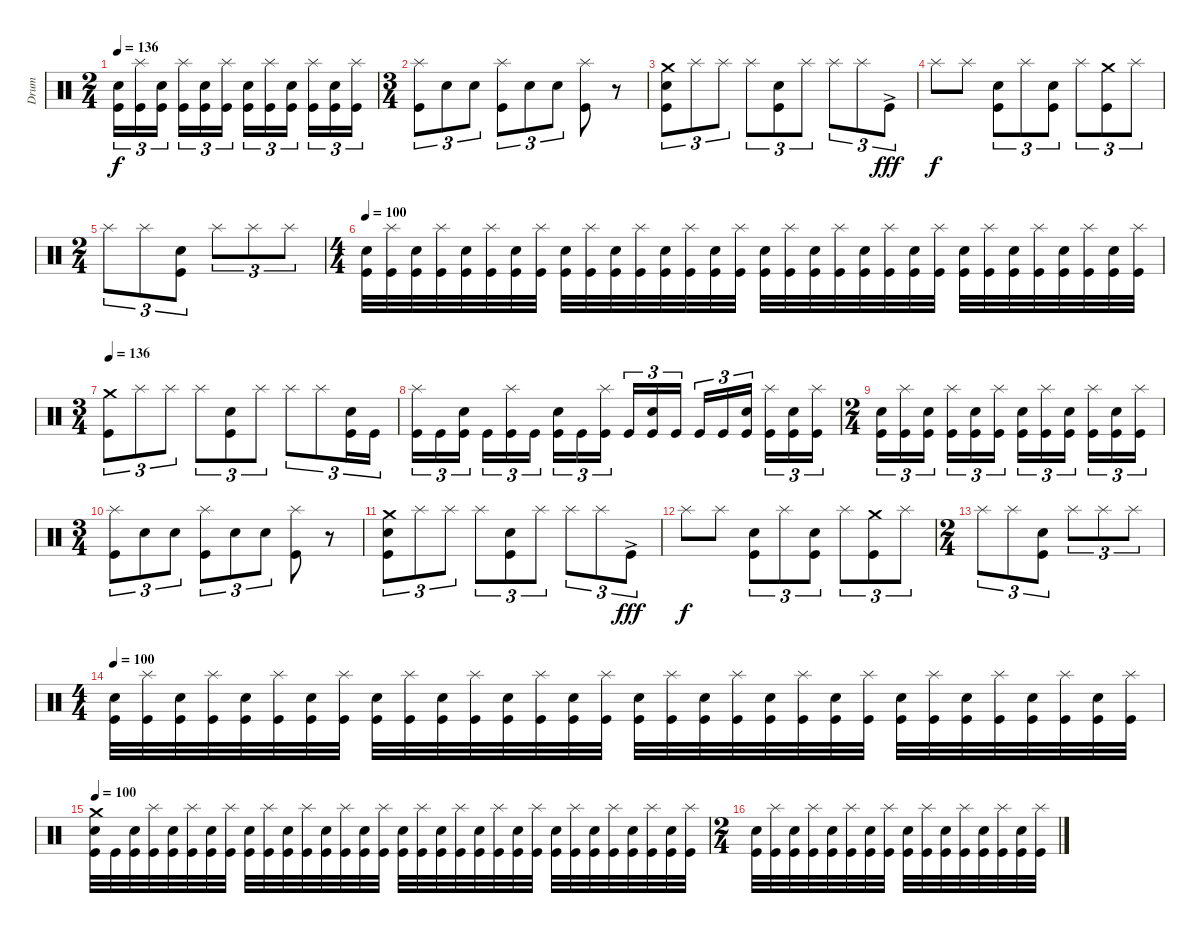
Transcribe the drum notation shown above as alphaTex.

\track ("Drum" "Drum") {instrument percussion}
\staff
\articulation defaults
\ts (2 4)
\tempo 136
\clef neutral
\ks c
("Electric Snare (hit)" "Kick (hit)").16{tu (3 2) dy f} ("Splash (hit)" "Kick (hit)").16{tu (3 2)} ("Electric Snare (hit)" "Kick (hit)").16{tu (3 2) beam splitsecondary} ("Splash (hit)" "Kick (hit)").16{tu (3 2)} ("Electric Snare (hit)" "Kick (hit)").16{tu (3 2)} ("Splash (hit)" "Kick (hit)").16{tu (3 2)} ("Electric Snare (hit)" "Kick (hit)").16{tu (3 2)} ("Splash (hit)" "Kick (hit)").16{tu (3 2)} ("Electric Snare (hit)" "Kick (hit)").16{tu (3 2) beam splitsecondary} ("Splash (hit)" "Kick (hit)").16{tu (3 2)} ("Electric Snare (hit)" "Kick (hit)").16{tu (3 2)} ("Splash (hit)" "Kick (hit)").16{tu (3 2)} |
\ts (3 4)
("Splash (hit)" "Kick (hit)").8{tu (3 2)} "Electric Snare (hit)".8{tu (3 2)} "Electric Snare (hit)".8{tu (3 2)} ("Splash (hit)" "Kick (hit)").8{tu (3 2)} "Electric Snare (hit)".8{tu (3 2)} "Electric Snare (hit)".8{tu (3 2)} ("Splash (hit)" "Kick (hit)").8 r.8 |
("Crash medium (hit)" "Electric Snare (hit)" "Kick (hit)").8{tu (3 2)} "Splash (hit)".8{tu (3 2)} "Splash (hit)".8{tu (3 2)} "Splash (hit)".8{tu (3 2)} ("Electric Snare (hit)" "Kick (hit)").8{tu (3 2)} "Splash (hit)".8{tu (3 2)} "Splash (hit)".8{tu (3 2)} "Splash (hit)".8{tu (3 2)} "Kick (hit)"{ac}.8{tu (3 2) dy fff} |
"Splash (hit)".8{dy f} "Splash (hit)".8 ("Electric Snare (hit)" "Kick (hit)").8{tu (3 2)} "Splash (hit)".8{tu (3 2)} ("Electric Snare (hit)" "Kick (hit)").8{tu (3 2)} "Splash (hit)".8{tu (3 2)} ("Crash medium (hit)" "Kick (hit)").8{tu (3 2)} "Splash (hit)".8{tu (3 2)} |
\ts (2 4)
"Splash (hit)".8{tu (3 2)} "Splash (hit)".8{tu (3 2)} ("Electric Snare (hit)" "Kick (hit)").8{tu (3 2)} "Splash (hit)".8{tu (3 2)} "Splash (hit)".8{tu (3 2)} "Splash (hit)".8{tu (3 2)} |
\ts (4 4)
\tempo 100
("Electric Snare (hit)" "Kick (hit)").32 ("Splash (hit)" "Kick (hit)").32 ("Electric Snare (hit)" "Kick (hit)").32 ("Splash (hit)" "Kick (hit)").32 ("Electric Snare (hit)" "Kick (hit)").32 ("Splash (hit)" "Kick (hit)").32 ("Electric Snare (hit)" "Kick (hit)").32 ("Splash (hit)" "Kick (hit)").32 ("Electric Snare (hit)" "Kick (hit)").32 ("Splash (hit)" "Kick (hit)").32 ("Electric Snare (hit)" "Kick (hit)").32 ("Splash (hit)" "Kick (hit)").32 ("Electric Snare (hit)" "Kick (hit)").32 ("Splash (hit)" "Kick (hit)").32 ("Electric Snare (hit)" "Kick (hit)").32 ("Splash (hit)" "Kick (hit)").32 ("Electric Snare (hit)" "Kick (hit)").32 ("Splash (hit)" "Kick (hit)").32 ("Electric Snare (hit)" "Kick (hit)").32 ("Splash (hit)" "Kick (hit)").32 ("Electric Snare (hit)" "Kick (hit)").32 ("Splash (hit)" "Kick (hit)").32 ("Electric Snare (hit)" "Kick (hit)").32 ("Splash (hit)" "Kick (hit)").32 ("Electric Snare (hit)" "Kick (hit)").32 ("Splash (hit)" "Kick (hit)").32 ("Electric Snare (hit)" "Kick (hit)").32 ("Splash (hit)" "Kick (hit)").32 ("Electric Snare (hit)" "Kick (hit)").32 ("Splash (hit)" "Kick (hit)").32 ("Electric Snare (hit)" "Kick (hit)").32 ("Splash (hit)" "Kick (hit)").32 |
\ts (3 4)
\tempo 136
("Crash medium (hit)" "Kick (hit)").8{tu (3 2)} "Splash (hit)".8{tu (3 2)} "Splash (hit)".8{tu (3 2)} "Splash (hit)".8{tu (3 2)} ("Electric Snare (hit)" "Kick (hit)").8{tu (3 2)} "Splash (hit)".8{tu (3 2)} "Splash (hit)".8{tu (3 2)} "Splash (hit)".8{tu (3 2)} ("Electric Snare (hit)" "Kick (hit)").16{tu (3 2)} "Kick (hit)".16{tu (3 2)} |
("Splash (hit)" "Kick (hit)").16{tu (3 2)} "Kick (hit)".16{tu (3 2)} ("Electric Snare (hit)" "Kick (hit)").16{tu (3 2) beam splitsecondary} "Kick (hit)".16{tu (3 2)} ("Splash (hit)" "Kick (hit)").16{tu (3 2)} "Kick (hit)".16{tu (3 2)} ("Electric Snare (hit)" "Kick (hit)").16{tu (3 2)} "Kick (hit)".16{tu (3 2)} ("Splash (hit)" "Kick (hit)").16{tu (3 2) beam splitsecondary} "Kick (hit)".16{tu (3 2)} ("Electric Snare (hit)" "Kick (hit)").16{tu (3 2)} "Kick (hit)".16{tu (3 2)} "Kick (hit)".16{tu (3 2)} "Kick (hit)".16{tu (3 2)} ("Electric Snare (hit)" "Kick (hit)").16{tu (3 2) beam splitsecondary} ("Splash (hit)" "Kick (hit)").16{tu (3 2)} ("Electric Snare (hit)" "Kick (hit)").16{tu (3 2)} ("Splash (hit)" "Kick (hit)").16{tu (3 2)} |
\ts (2 4)
("Electric Snare (hit)" "Kick (hit)").16{tu (3 2)} ("Splash (hit)" "Kick (hit)").16{tu (3 2)} ("Electric Snare (hit)" "Kick (hit)").16{tu (3 2) beam splitsecondary} ("Splash (hit)" "Kick (hit)").16{tu (3 2)} ("Electric Snare (hit)" "Kick (hit)").16{tu (3 2)} ("Splash (hit)" "Kick (hit)").16{tu (3 2)} ("Electric Snare (hit)" "Kick (hit)").16{tu (3 2)} ("Splash (hit)" "Kick (hit)").16{tu (3 2)} ("Electric Snare (hit)" "Kick (hit)").16{tu (3 2) beam splitsecondary} ("Splash (hit)" "Kick (hit)").16{tu (3 2)} ("Electric Snare (hit)" "Kick (hit)").16{tu (3 2)} ("Splash (hit)" "Kick (hit)").16{tu (3 2)} |
\ts (3 4)
("Splash (hit)" "Kick (hit)").8{tu (3 2)} "Electric Snare (hit)".8{tu (3 2)} "Electric Snare (hit)".8{tu (3 2)} ("Splash (hit)" "Kick (hit)").8{tu (3 2)} "Electric Snare (hit)".8{tu (3 2)} "Electric Snare (hit)".8{tu (3 2)} ("Splash (hit)" "Kick (hit)").8 r.8 |
("Crash medium (hit)" "Electric Snare (hit)" "Kick (hit)").8{tu (3 2)} "Splash (hit)".8{tu (3 2)} "Splash (hit)".8{tu (3 2)} "Splash (hit)".8{tu (3 2)} ("Electric Snare (hit)" "Kick (hit)").8{tu (3 2)} "Splash (hit)".8{tu (3 2)} "Splash (hit)".8{tu (3 2)} "Splash (hit)".8{tu (3 2)} "Kick (hit)"{ac}.8{tu (3 2) dy fff} |
"Splash (hit)".8{dy f} "Splash (hit)".8 ("Electric Snare (hit)" "Kick (hit)").8{tu (3 2)} "Splash (hit)".8{tu (3 2)} ("Electric Snare (hit)" "Kick (hit)").8{tu (3 2)} "Splash (hit)".8{tu (3 2)} ("Crash medium (hit)" "Kick (hit)").8{tu (3 2)} "Splash (hit)".8{tu (3 2)} |
\ts (2 4)
"Splash (hit)".8{tu (3 2)} "Splash (hit)".8{tu (3 2)} ("Electric Snare (hit)" "Kick (hit)").8{tu (3 2)} "Splash (hit)".8{tu (3 2)} "Splash (hit)".8{tu (3 2)} "Splash (hit)".8{tu (3 2)} |
\ts (4 4)
\tempo 100
("Electric Snare (hit)" "Kick (hit)").32 ("Splash (hit)" "Kick (hit)").32 ("Electric Snare (hit)" "Kick (hit)").32 ("Splash (hit)" "Kick (hit)").32 ("Electric Snare (hit)" "Kick (hit)").32 ("Splash (hit)" "Kick (hit)").32 ("Electric Snare (hit)" "Kick (hit)").32 ("Splash (hit)" "Kick (hit)").32 ("Electric Snare (hit)" "Kick (hit)").32 ("Splash (hit)" "Kick (hit)").32 ("Electric Snare (hit)" "Kick (hit)").32 ("Splash (hit)" "Kick (hit)").32 ("Electric Snare (hit)" "Kick (hit)").32 ("Splash (hit)" "Kick (hit)").32 ("Electric Snare (hit)" "Kick (hit)").32 ("Splash (hit)" "Kick (hit)").32 ("Electric Snare (hit)" "Kick (hit)").32 ("Splash (hit)" "Kick (hit)").32 ("Electric Snare (hit)" "Kick (hit)").32 ("Splash (hit)" "Kick (hit)").32 ("Electric Snare (hit)" "Kick (hit)").32 ("Splash (hit)" "Kick (hit)").32 ("Electric Snare (hit)" "Kick (hit)").32 ("Splash (hit)" "Kick (hit)").32 ("Electric Snare (hit)" "Kick (hit)").32 ("Splash (hit)" "Kick (hit)").32 ("Electric Snare (hit)" "Kick (hit)").32 ("Splash (hit)" "Kick (hit)").32 ("Electric Snare (hit)" "Kick (hit)").32 ("Splash (hit)" "Kick (hit)").32 ("Electric Snare (hit)" "Kick (hit)").32 ("Splash (hit)" "Kick (hit)").32 |
\tempo 100
("Crash medium (hit)" "Electric Snare (hit)" "Kick (hit)").32 "Kick (hit)".32 ("Electric Snare (hit)" "Kick (hit)").32 ("Splash (hit)" "Kick (hit)").32 ("Electric Snare (hit)" "Kick (hit)").32 ("Splash (hit)" "Kick (hit)").32 ("Electric Snare (hit)" "Kick (hit)").32 ("Splash (hit)" "Kick (hit)").32 ("Electric Snare (hit)" "Kick (hit)").32 ("Splash (hit)" "Kick (hit)").32 ("Electric Snare (hit)" "Kick (hit)").32 ("Splash (hit)" "Kick (hit)").32 ("Electric Snare (hit)" "Kick (hit)").32 ("Splash (hit)" "Kick (hit)").32 ("Electric Snare (hit)" "Kick (hit)").32 ("Splash (hit)" "Kick (hit)").32 ("Electric Snare (hit)" "Kick (hit)").32 ("Splash (hit)" "Kick (hit)").32 ("Electric Snare (hit)" "Kick (hit)").32 ("Splash (hit)" "Kick (hit)").32 ("Electric Snare (hit)" "Kick (hit)").32 ("Splash (hit)" "Kick (hit)").32 ("Electric Snare (hit)" "Kick (hit)").32 ("Splash (hit)" "Kick (hit)").32 ("Electric Snare (hit)" "Kick (hit)").32 ("Splash (hit)" "Kick (hit)").32 ("Electric Snare (hit)" "Kick (hit)").32 ("Splash (hit)" "Kick (hit)").32 ("Electric Snare (hit)" "Kick (hit)").32 ("Splash (hit)" "Kick (hit)").32 ("Electric Snare (hit)" "Kick (hit)").32 ("Splash (hit)" "Kick (hit)").32 |
\ts (2 4)
("Electric Snare (hit)" "Kick (hit)").32 ("Splash (hit)" "Kick (hit)").32 ("Electric Snare (hit)" "Kick (hit)").32 ("Splash (hit)" "Kick (hit)").32 ("Electric Snare (hit)" "Kick (hit)").32 ("Splash (hit)" "Kick (hit)").32 ("Electric Snare (hit)" "Kick (hit)").32 ("Splash (hit)" "Kick (hit)").32 ("Electric Snare (hit)" "Kick (hit)").32 ("Splash (hit)" "Kick (hit)").32 ("Electric Snare (hit)" "Kick (hit)").32 ("Splash (hit)" "Kick (hit)").32 ("Electric Snare (hit)" "Kick (hit)").32 ("Splash (hit)" "Kick (hit)").32 ("Electric Snare (hit)" "Kick (hit)").32 ("Splash (hit)" "Kick (hit)").32
